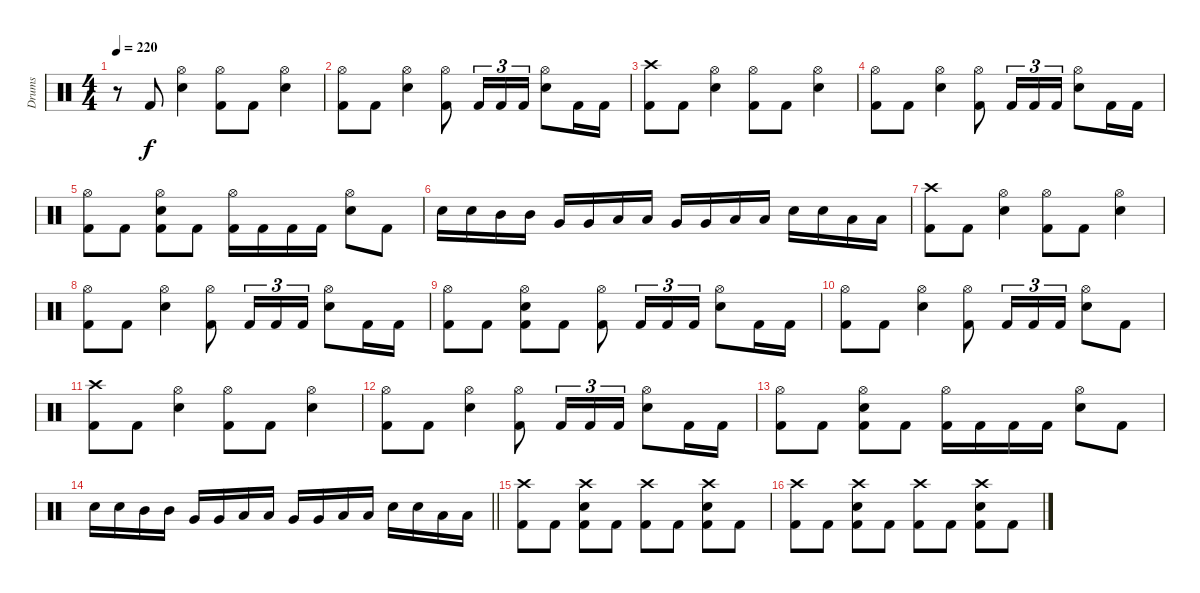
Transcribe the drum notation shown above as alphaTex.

\track ("Drums" "Drums") {instrument percussion}
\staff {score}
\articulation defaults
\ts (4 4)
\tempo 220
\clef neutral
\ks c
r.8{dy f} "Kick (hit) 2".8 ("Electric Snare (hit)" "Hi-Hat (open)").4 ("Hi-Hat (open)" "Kick (hit) 2").8 "Kick (hit) 2".8 ("Hi-Hat (open)" "Electric Snare (hit)").4 |
("Kick (hit) 2" "Hi-Hat (open)").8 "Kick (hit) 2".8 ("Electric Snare (hit)" "Hi-Hat (open)").4 ("Hi-Hat (open)" "Kick (hit) 2").8 "Kick (hit) 2".16{tu (3 2)} "Kick (hit) 2".16{tu (3 2)} "Kick (hit) 2".16{tu (3 2)} ("Hi-Hat (open)" "Electric Snare (hit)").8 "Kick (hit) 2".16 "Kick (hit) 2".16 |
("Kick (hit) 2" "Crash high (hit)").8 "Kick (hit) 2".8 ("Electric Snare (hit)" "Hi-Hat (open)").4 ("Hi-Hat (open)" "Kick (hit) 2").8 "Kick (hit) 2".8 ("Hi-Hat (open)" "Electric Snare (hit)").4 |
("Kick (hit) 2" "Hi-Hat (open)").8 "Kick (hit) 2".8 ("Electric Snare (hit)" "Hi-Hat (open)").4 ("Hi-Hat (open)" "Kick (hit) 2").8 "Kick (hit) 2".16{tu (3 2)} "Kick (hit) 2".16{tu (3 2)} "Kick (hit) 2".16{tu (3 2)} ("Hi-Hat (open)" "Electric Snare (hit)").8 "Kick (hit) 2".16 "Kick (hit) 2".16 |
("Kick (hit) 2" "Hi-Hat (open)").8 "Kick (hit) 2".8 ("Electric Snare (hit)" "Kick (hit) 2" "Hi-Hat (open)").8 "Kick (hit) 2".8 ("Hi-Hat (open)" "Kick (hit) 2").16 "Kick (hit) 2".16 "Kick (hit) 2".16 "Kick (hit) 2".16 ("Electric Snare (hit)" "Hi-Hat (open)").8 "Kick (hit) 2".8 |
"Electric Snare (hit)".16 "Electric Snare (hit)".16 "Mid Tom (hit)".16 "Mid Tom (hit)".16 "Very Low Tom (hit)".16 "Very Low Tom (hit)".16 "Low Tom (hit)".16 "Low Tom (hit)".16 "Very Low Tom (hit)".16 "Very Low Tom (hit)".16 "Low Tom (hit)".16 "Low Tom (hit)".16 "Electric Snare (hit)".16 "Electric Snare (hit)".16 "Low Floor Tom (hit)".16 "Low Floor Tom (hit)".16 |
("Kick (hit) 2" "Crash high (hit)").8 "Kick (hit) 2".8 ("Electric Snare (hit)" "Hi-Hat (open)").4 ("Hi-Hat (open)" "Kick (hit) 2").8 "Kick (hit) 2".8 ("Hi-Hat (open)" "Electric Snare (hit)").4 |
("Kick (hit) 2" "Hi-Hat (open)").8 "Kick (hit) 2".8 ("Electric Snare (hit)" "Hi-Hat (open)").4 ("Hi-Hat (open)" "Kick (hit) 2").8 "Kick (hit) 2".16{tu (3 2)} "Kick (hit) 2".16{tu (3 2)} "Kick (hit) 2".16{tu (3 2)} ("Hi-Hat (open)" "Electric Snare (hit)").8 "Kick (hit) 2".16 "Kick (hit) 2".16 |
("Kick (hit) 2" "Hi-Hat (open)").8 "Kick (hit) 2".8 ("Electric Snare (hit)" "Kick (hit) 2" "Hi-Hat (open)").8 "Kick (hit) 2".8 ("Hi-Hat (open)" "Kick (hit) 2").8 "Kick (hit) 2".16{tu (3 2)} "Kick (hit) 2".16{tu (3 2)} "Kick (hit) 2".16{tu (3 2)} ("Electric Snare (hit)" "Hi-Hat (open)").8 "Kick (hit) 2".16 "Kick (hit) 2".16 |
("Kick (hit) 2" "Hi-Hat (open)").8 "Kick (hit) 2".8 ("Electric Snare (hit)" "Hi-Hat (open)").4 ("Hi-Hat (open)" "Kick (hit) 2").8 "Kick (hit) 2".16{tu (3 2)} "Kick (hit) 2".16{tu (3 2)} "Kick (hit) 2".16{tu (3 2)} ("Hi-Hat (open)" "Electric Snare (hit)").8 "Kick (hit) 2".8 |
("Kick (hit) 2" "Crash high (hit)").8 "Kick (hit) 2".8 ("Electric Snare (hit)" "Hi-Hat (open)").4 ("Hi-Hat (open)" "Kick (hit) 2").8 "Kick (hit) 2".8 ("Hi-Hat (open)" "Electric Snare (hit)").4 |
("Kick (hit) 2" "Hi-Hat (open)").8 "Kick (hit) 2".8 ("Electric Snare (hit)" "Hi-Hat (open)").4 ("Hi-Hat (open)" "Kick (hit) 2").8 "Kick (hit) 2".16{tu (3 2)} "Kick (hit) 2".16{tu (3 2)} "Kick (hit) 2".16{tu (3 2)} ("Hi-Hat (open)" "Electric Snare (hit)").8 "Kick (hit) 2".16 "Kick (hit) 2".16 |
("Kick (hit) 2" "Hi-Hat (open)").8 "Kick (hit) 2".8 ("Electric Snare (hit)" "Kick (hit) 2" "Hi-Hat (open)").8 "Kick (hit) 2".8 ("Hi-Hat (open)" "Kick (hit) 2").16 "Kick (hit) 2".16 "Kick (hit) 2".16 "Kick (hit) 2".16 ("Electric Snare (hit)" "Hi-Hat (open)").8 "Kick (hit) 2".8 |
\barLineRight lightlight "Electric Snare (hit)".16 "Electric Snare (hit)".16 "Mid Tom (hit)".16 "Mid Tom (hit)".16 "Very Low Tom (hit)".16 "Very Low Tom (hit)".16 "Low Tom (hit)".16 "Low Tom (hit)".16 "Very Low Tom (hit)".16 "Very Low Tom (hit)".16 "Low Tom (hit)".16 "Low Tom (hit)".16 "Electric Snare (hit)".16 "Electric Snare (hit)".16 "Low Floor Tom (hit)".16 "Low Floor Tom (hit)".16
|
("Kick (hit) 2" "Crash high (hit)").8 "Kick (hit) 2".8 ("Kick (hit) 2" "Crash high (hit)" "Electric Snare (hit)").8 "Kick (hit) 2".8 ("Kick (hit) 2" "Crash high (hit)").8 "Kick (hit) 2".8 ("Kick (hit) 2" "Crash high (hit)" "Electric Snare (hit)").8 "Kick (hit) 2".8 |
("Kick (hit) 2" "Crash high (hit)").8 "Kick (hit) 2".8 ("Kick (hit) 2" "Crash high (hit)" "Electric Snare (hit)").8 "Kick (hit) 2".8 ("Kick (hit) 2" "Crash high (hit)").8 "Kick (hit) 2".8 ("Kick (hit) 2" "Crash high (hit)" "Electric Snare (hit)").8 "Kick (hit) 2".8
